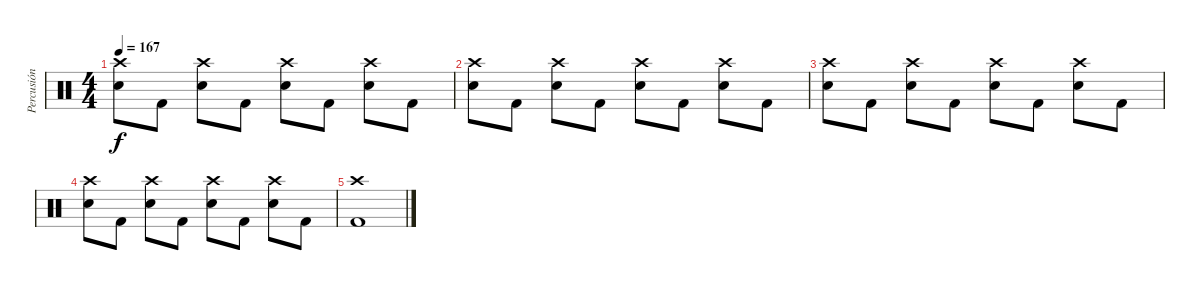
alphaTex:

\track ("Percusión" "Percusión") {instrument percussion}
\staff {score}
\articulation defaults
\ts (4 4)
\tempo 167
\clef neutral
\ks c
("Crash high (hit)" "Electric Snare (hit)").8{dy f} "Kick (hit) 2".8 ("Crash high (hit)" "Electric Snare (hit)").8 "Kick (hit) 2".8 ("Crash high (hit)" "Electric Snare (hit)").8 "Kick (hit) 2".8 ("Crash high (hit)" "Electric Snare (hit)").8 "Kick (hit) 2".8 |
("Crash high (hit)" "Electric Snare (hit)").8 "Kick (hit) 2".8 ("Crash high (hit)" "Electric Snare (hit)").8 "Kick (hit) 2".8 ("Crash high (hit)" "Electric Snare (hit)").8 "Kick (hit) 2".8 ("Crash high (hit)" "Electric Snare (hit)").8 "Kick (hit) 2".8 |
("Crash high (hit)" "Electric Snare (hit)").8 "Kick (hit) 2".8 ("Crash high (hit)" "Electric Snare (hit)").8 "Kick (hit) 2".8 ("Crash high (hit)" "Electric Snare (hit)").8 "Kick (hit) 2".8 ("Crash high (hit)" "Electric Snare (hit)").8 "Kick (hit) 2".8 |
("Crash high (hit)" "Electric Snare (hit)").8 "Kick (hit) 2".8 ("Crash high (hit)" "Electric Snare (hit)").8 "Kick (hit) 2".8 ("Crash high (hit)" "Electric Snare (hit)").8 "Kick (hit) 2".8 ("Crash high (hit)" "Electric Snare (hit)").8 "Kick (hit) 2".8 |
("Crash high (hit)" "Kick (hit) 2").1
